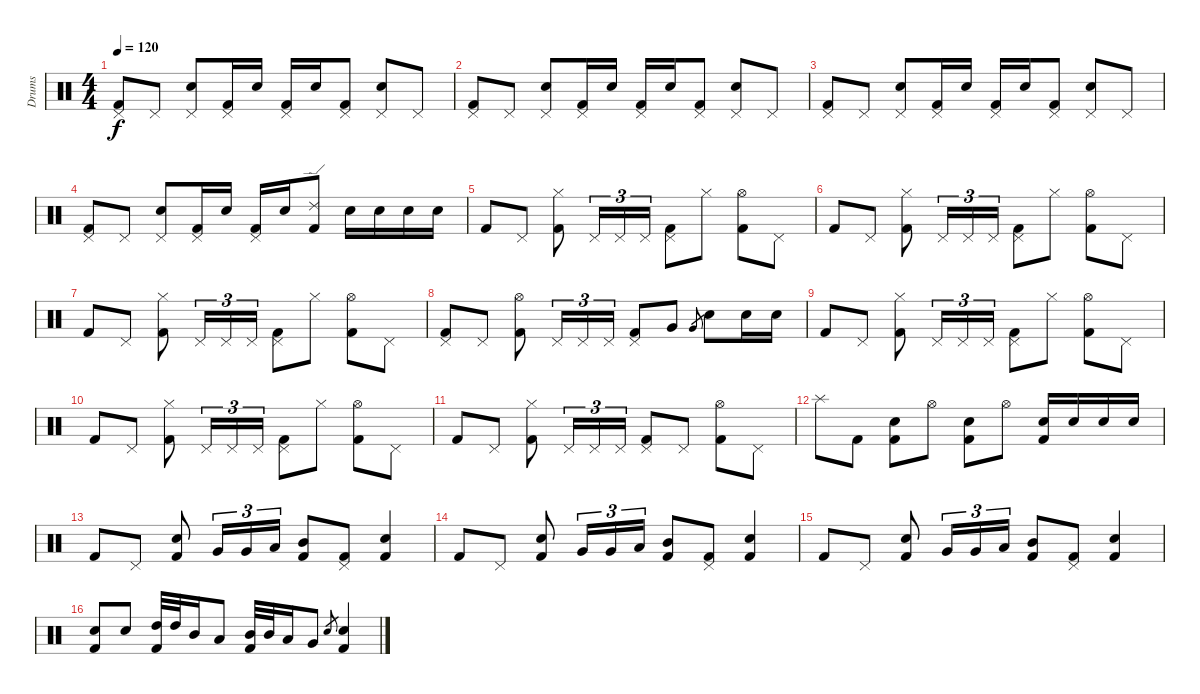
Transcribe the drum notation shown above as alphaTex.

\track ("Drums" "Drums") {instrument percussion}
\staff {score}
\articulation defaults
\ts (4 4)
\tempo 120
\clef neutral
\ks c
("Pedal Hi-Hat (hit)" "Kick (hit) 2").8{dy f} "Pedal Hi-Hat (hit)".8 ("Pedal Hi-Hat (hit)" "Electric Snare (hit)").8 ("Pedal Hi-Hat (hit)" "Kick (hit) 2").16 "Electric Snare (hit)".16 ("Pedal Hi-Hat (hit)" "Kick (hit) 2").16 "Electric Snare (hit)".16 ("Pedal Hi-Hat (hit)" "Kick (hit) 2").8 ("Pedal Hi-Hat (hit)" "Electric Snare (hit)").8 "Pedal Hi-Hat (hit)".8 |
("Pedal Hi-Hat (hit)" "Kick (hit) 2").8 "Pedal Hi-Hat (hit)".8 ("Pedal Hi-Hat (hit)" "Electric Snare (hit)").8 ("Pedal Hi-Hat (hit)" "Kick (hit) 2").16 "Electric Snare (hit)".16 ("Pedal Hi-Hat (hit)" "Kick (hit) 2").16 "Electric Snare (hit)".16 ("Pedal Hi-Hat (hit)" "Kick (hit) 2").8 ("Pedal Hi-Hat (hit)" "Electric Snare (hit)").8 "Pedal Hi-Hat (hit)".8 |
("Pedal Hi-Hat (hit)" "Kick (hit) 2").8 "Pedal Hi-Hat (hit)".8 ("Pedal Hi-Hat (hit)" "Electric Snare (hit)").8 ("Pedal Hi-Hat (hit)" "Kick (hit) 2").16 "Electric Snare (hit)".16 ("Pedal Hi-Hat (hit)" "Kick (hit) 2").16 "Electric Snare (hit)".16 ("Pedal Hi-Hat (hit)" "Kick (hit) 2").8 ("Pedal Hi-Hat (hit)" "Electric Snare (hit)").8 "Pedal Hi-Hat (hit)".8 |
("Pedal Hi-Hat (hit)" "Kick (hit) 2").8 "Pedal Hi-Hat (hit)".8 ("Pedal Hi-Hat (hit)" "Electric Snare (hit)").8 ("Pedal Hi-Hat (hit)" "Kick (hit) 2").16 "Electric Snare (hit)".16 ("Pedal Hi-Hat (hit)" "Kick (hit) 2").16 "Electric Snare (hit)".16 ("Ride (edge) 2" "Kick (hit) 2").8 "Electric Snare (hit)".16 "Electric Snare (hit)".16 "Electric Snare (hit)".16 "Electric Snare (hit)".16 |
"Kick (hit) 2".8 "Pedal Hi-Hat (hit)".8 ("Hi-Hat (closed)" "Kick (hit) 2").8 "Pedal Hi-Hat (hit)".16{tu (3 2)} "Pedal Hi-Hat (hit)".16{tu (3 2)} "Pedal Hi-Hat (hit)".16{tu (3 2)} ("Pedal Hi-Hat (hit)" "Kick (hit) 2").8 "Hi-Hat (closed)".8 ("Hi-Hat (open)" "Kick (hit) 2").8 "Pedal Hi-Hat (hit)".8 |
"Kick (hit) 2".8 "Pedal Hi-Hat (hit)".8 ("Hi-Hat (closed)" "Kick (hit) 2").8 "Pedal Hi-Hat (hit)".16{tu (3 2)} "Pedal Hi-Hat (hit)".16{tu (3 2)} "Pedal Hi-Hat (hit)".16{tu (3 2)} ("Pedal Hi-Hat (hit)" "Kick (hit) 2").8 "Hi-Hat (closed)".8 ("Hi-Hat (open)" "Kick (hit) 2").8 "Pedal Hi-Hat (hit)".8 |
"Kick (hit) 2".8 "Pedal Hi-Hat (hit)".8 ("Hi-Hat (closed)" "Kick (hit) 2").8 "Pedal Hi-Hat (hit)".16{tu (3 2)} "Pedal Hi-Hat (hit)".16{tu (3 2)} "Pedal Hi-Hat (hit)".16{tu (3 2)} ("Pedal Hi-Hat (hit)" "Kick (hit) 2").8 "Hi-Hat (closed)".8 ("Hi-Hat (open)" "Kick (hit) 2").8 "Pedal Hi-Hat (hit)".8 |
("Pedal Hi-Hat (hit)" "Kick (hit) 2").8 "Pedal Hi-Hat (hit)".8 ("Hi-Hat (open)" "Kick (hit) 2").8 "Pedal Hi-Hat (hit)".16{tu (3 2)} "Pedal Hi-Hat (hit)".16{tu (3 2)} "Pedal Hi-Hat (hit)".16{tu (3 2)} ("Pedal Hi-Hat (hit)" "Kick (hit) 2").8 "Very Low Tom (hit)".8 "Very Low Tom (hit)".8{gr} "Electric Snare (hit)".8 "Electric Snare (hit)".16 "Electric Snare (hit)".16 |
"Kick (hit) 2".8 "Pedal Hi-Hat (hit)".8 ("Hi-Hat (closed)" "Kick (hit) 2").8 "Pedal Hi-Hat (hit)".16{tu (3 2)} "Pedal Hi-Hat (hit)".16{tu (3 2)} "Pedal Hi-Hat (hit)".16{tu (3 2)} ("Pedal Hi-Hat (hit)" "Kick (hit) 2").8 "Hi-Hat (closed)".8 ("Hi-Hat (open)" "Kick (hit) 2").8 "Pedal Hi-Hat (hit)".8 |
"Kick (hit) 2".8 "Pedal Hi-Hat (hit)".8 ("Hi-Hat (closed)" "Kick (hit) 2").8 "Pedal Hi-Hat (hit)".16{tu (3 2)} "Pedal Hi-Hat (hit)".16{tu (3 2)} "Pedal Hi-Hat (hit)".16{tu (3 2)} ("Pedal Hi-Hat (hit)" "Kick (hit) 2").8 "Hi-Hat (closed)".8 ("Hi-Hat (open)" "Kick (hit) 2").8 "Pedal Hi-Hat (hit)".8 |
"Kick (hit) 2".8 "Pedal Hi-Hat (hit)".8 ("Hi-Hat (closed)" "Kick (hit) 2").8 "Pedal Hi-Hat (hit)".16{tu (3 2)} "Pedal Hi-Hat (hit)".16{tu (3 2)} "Pedal Hi-Hat (hit)".16{tu (3 2)} ("Pedal Hi-Hat (hit)" "Kick (hit) 2").8 "Pedal Hi-Hat (hit)".8 ("Hi-Hat (open)" "Kick (hit) 2").8 "Pedal Hi-Hat (hit)".8 |
"Splash (hit)".8 "Kick (hit) 2".8 ("Electric Snare (hit)" "Kick (hit) 2").8 "Hi-Hat (open)".8 ("Electric Snare (hit)" "Kick (hit) 2").8 "Hi-Hat (open)".8 ("Electric Snare (hit)" "Kick (hit) 2").16 "Electric Snare (hit)".16 "Electric Snare (hit)".16 "Electric Snare (hit)".16 |
"Kick (hit) 2".8 "Pedal Hi-Hat (hit)".8 ("Electric Snare (hit)" "Kick (hit) 2").8 "Very Low Tom (hit)".16{tu (3 2)} "Very Low Tom (hit)".16{tu (3 2)} "Low Tom (hit)".16{tu (3 2)} ("Mid Tom (hit)" "Kick (hit) 2").8 ("Pedal Hi-Hat (hit)" "Kick (hit) 2").8 ("Electric Snare (hit)" "Kick (hit) 2").4 |
"Kick (hit) 2".8 "Pedal Hi-Hat (hit)".8 ("Electric Snare (hit)" "Kick (hit) 2").8 "Very Low Tom (hit)".16{tu (3 2)} "Very Low Tom (hit)".16{tu (3 2)} "Low Tom (hit)".16{tu (3 2)} ("Mid Tom (hit)" "Kick (hit) 2").8 ("Pedal Hi-Hat (hit)" "Kick (hit) 2").8 ("Electric Snare (hit)" "Kick (hit) 2").4 |
"Kick (hit) 2".8 "Pedal Hi-Hat (hit)".8 ("Electric Snare (hit)" "Kick (hit) 2").8 "Very Low Tom (hit)".16{tu (3 2)} "Very Low Tom (hit)".16{tu (3 2)} "Low Tom (hit)".16{tu (3 2)} ("Mid Tom (hit)" "Kick (hit) 2").8 ("Pedal Hi-Hat (hit)" "Kick (hit) 2").8 ("Electric Snare (hit)" "Kick (hit) 2").4 |
("Electric Snare (hit)" "Kick (hit) 2").8 "Electric Snare (hit)".8 ("High Tom (hit)" "Kick (hit) 2").32 "High Tom (hit)".32 "Mid Tom (hit)".16 "Low Tom (hit)".8 ("Mid Tom (hit)" "Kick (hit) 2").32 "Mid Tom (hit)".32 "Low Tom (hit)".16 "Very Low Tom (hit)".8 "Electric Snare (hit)".8{gr} ("Electric Snare (hit)" "Kick (hit) 2").4
